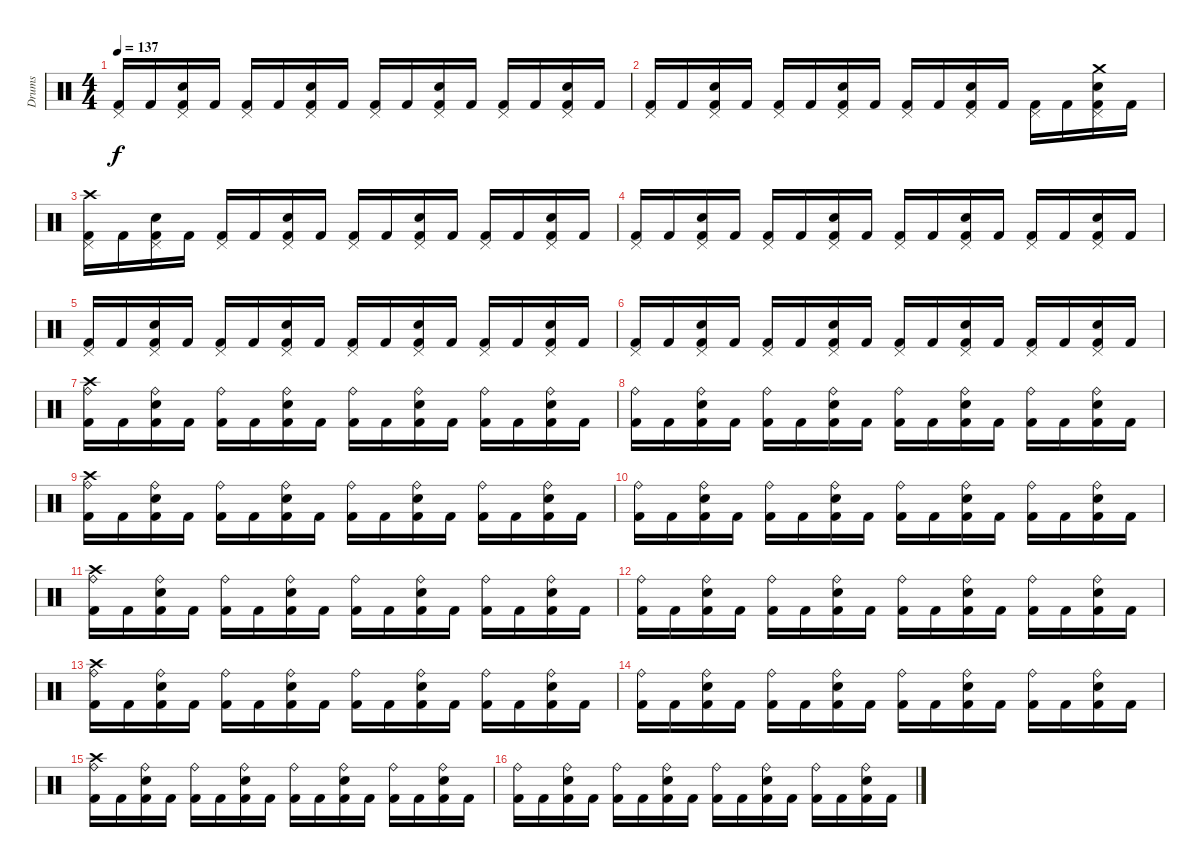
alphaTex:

\track ("Drums" "Drums") {instrument percussion}
\staff
\articulation defaults
\ts (4 4)
\tempo 137
\clef neutral
\ks c
("Pedal Hi-Hat (hit)" "Kick (hit) 2").16{dy f} "Kick (hit) 2".16 ("Pedal Hi-Hat (hit)" "Snare (hit) 2" "Kick (hit) 2").16 "Kick (hit) 2".16 ("Pedal Hi-Hat (hit)" "Kick (hit) 2").16 "Kick (hit) 2".16 ("Pedal Hi-Hat (hit)" "Snare (hit) 2" "Kick (hit) 2").16 "Kick (hit) 2".16 ("Pedal Hi-Hat (hit)" "Kick (hit) 2").16 "Kick (hit) 2".16 ("Pedal Hi-Hat (hit)" "Snare (hit) 2" "Kick (hit) 2").16 "Kick (hit) 2".16 ("Pedal Hi-Hat (hit)" "Kick (hit) 2").16 "Kick (hit) 2".16 ("Pedal Hi-Hat (hit)" "Snare (hit) 2" "Kick (hit) 2").16 "Kick (hit) 2".16 |
("Pedal Hi-Hat (hit)" "Kick (hit) 2").16 "Kick (hit) 2".16 ("Pedal Hi-Hat (hit)" "Snare (hit) 2" "Kick (hit) 2").16 "Kick (hit) 2".16 ("Pedal Hi-Hat (hit)" "Kick (hit) 2").16 "Kick (hit) 2".16 ("Pedal Hi-Hat (hit)" "Snare (hit) 2" "Kick (hit) 2").16 "Kick (hit) 2".16 ("Pedal Hi-Hat (hit)" "Kick (hit) 2").16 "Kick (hit) 2".16 ("Pedal Hi-Hat (hit)" "Snare (hit) 2" "Kick (hit) 2").16 "Kick (hit) 2".16 ("Pedal Hi-Hat (hit)" "Kick (hit) 2").16 "Kick (hit) 2".16 ("Crash medium (hit)" "Pedal Hi-Hat (hit)" "Snare (hit) 2" "Kick (hit) 2").16 "Kick (hit) 2".16 |
("Crash high (hit)" "Pedal Hi-Hat (hit)" "Kick (hit) 2").16 "Kick (hit) 2".16 ("Pedal Hi-Hat (hit)" "Snare (hit) 2" "Kick (hit) 2").16 "Kick (hit) 2".16 ("Pedal Hi-Hat (hit)" "Kick (hit) 2").16 "Kick (hit) 2".16 ("Pedal Hi-Hat (hit)" "Snare (hit) 2" "Kick (hit) 2").16 "Kick (hit) 2".16 ("Pedal Hi-Hat (hit)" "Kick (hit) 2").16 "Kick (hit) 2".16 ("Pedal Hi-Hat (hit)" "Snare (hit) 2" "Kick (hit) 2").16 "Kick (hit) 2".16 ("Pedal Hi-Hat (hit)" "Kick (hit) 2").16 "Kick (hit) 2".16 ("Pedal Hi-Hat (hit)" "Snare (hit) 2" "Kick (hit) 2").16 "Kick (hit) 2".16 |
("Pedal Hi-Hat (hit)" "Kick (hit) 2").16 "Kick (hit) 2".16 ("Pedal Hi-Hat (hit)" "Snare (hit) 2" "Kick (hit) 2").16 "Kick (hit) 2".16 ("Pedal Hi-Hat (hit)" "Kick (hit) 2").16 "Kick (hit) 2".16 ("Pedal Hi-Hat (hit)" "Snare (hit) 2" "Kick (hit) 2").16 "Kick (hit) 2".16 ("Pedal Hi-Hat (hit)" "Kick (hit) 2").16 "Kick (hit) 2".16 ("Pedal Hi-Hat (hit)" "Snare (hit) 2" "Kick (hit) 2").16 "Kick (hit) 2".16 ("Pedal Hi-Hat (hit)" "Kick (hit) 2").16 "Kick (hit) 2".16 ("Pedal Hi-Hat (hit)" "Snare (hit) 2" "Kick (hit) 2").16 "Kick (hit) 2".16 |
("Pedal Hi-Hat (hit)" "Kick (hit) 2").16 "Kick (hit) 2".16 ("Pedal Hi-Hat (hit)" "Snare (hit) 2" "Kick (hit) 2").16 "Kick (hit) 2".16 ("Pedal Hi-Hat (hit)" "Kick (hit) 2").16 "Kick (hit) 2".16 ("Pedal Hi-Hat (hit)" "Snare (hit) 2" "Kick (hit) 2").16 "Kick (hit) 2".16 ("Pedal Hi-Hat (hit)" "Kick (hit) 2").16 "Kick (hit) 2".16 ("Pedal Hi-Hat (hit)" "Snare (hit) 2" "Kick (hit) 2").16 "Kick (hit) 2".16 ("Pedal Hi-Hat (hit)" "Kick (hit) 2").16 "Kick (hit) 2".16 ("Pedal Hi-Hat (hit)" "Snare (hit) 2" "Kick (hit) 2").16 "Kick (hit) 2".16 |
("Pedal Hi-Hat (hit)" "Kick (hit) 2").16 "Kick (hit) 2".16 ("Pedal Hi-Hat (hit)" "Snare (hit) 2" "Kick (hit) 2").16 "Kick (hit) 2".16 ("Pedal Hi-Hat (hit)" "Kick (hit) 2").16 "Kick (hit) 2".16 ("Pedal Hi-Hat (hit)" "Snare (hit) 2" "Kick (hit) 2").16 "Kick (hit) 2".16 ("Pedal Hi-Hat (hit)" "Kick (hit) 2").16 "Kick (hit) 2".16 ("Pedal Hi-Hat (hit)" "Snare (hit) 2" "Kick (hit) 2").16 "Kick (hit) 2".16 ("Pedal Hi-Hat (hit)" "Kick (hit) 2").16 "Kick (hit) 2".16 ("Pedal Hi-Hat (hit)" "Snare (hit) 2" "Kick (hit) 2").16 "Kick (hit) 2".16 |
("Crash high (hit)" "Ride (bell)" "Kick (hit) 2").16 "Kick (hit) 2".16 ("Ride (bell)" "Snare (hit) 2" "Kick (hit) 2").16 "Kick (hit) 2".16 ("Ride (bell)" "Kick (hit) 2").16 "Kick (hit) 2".16 ("Ride (bell)" "Snare (hit) 2" "Kick (hit) 2").16 "Kick (hit) 2".16 ("Ride (bell)" "Kick (hit) 2").16 "Kick (hit) 2".16 ("Ride (bell)" "Snare (hit) 2" "Kick (hit) 2").16 "Kick (hit) 2".16 ("Ride (bell)" "Kick (hit) 2").16 "Kick (hit) 2".16 ("Ride (bell)" "Snare (hit) 2" "Kick (hit) 2").16 "Kick (hit) 2".16 |
("Ride (bell)" "Kick (hit) 2").16 "Kick (hit) 2".16 ("Ride (bell)" "Snare (hit) 2" "Kick (hit) 2").16 "Kick (hit) 2".16 ("Ride (bell)" "Kick (hit) 2").16 "Kick (hit) 2".16 ("Ride (bell)" "Snare (hit) 2" "Kick (hit) 2").16 "Kick (hit) 2".16 ("Ride (bell)" "Kick (hit) 2").16 "Kick (hit) 2".16 ("Ride (bell)" "Snare (hit) 2" "Kick (hit) 2").16 "Kick (hit) 2".16 ("Ride (bell)" "Kick (hit) 2").16 "Kick (hit) 2".16 ("Ride (bell)" "Snare (hit) 2" "Kick (hit) 2").16 "Kick (hit) 2".16 |
("Crash high (hit)" "Ride (bell)" "Kick (hit) 2").16 "Kick (hit) 2".16 ("Ride (bell)" "Snare (hit) 2" "Kick (hit) 2").16 "Kick (hit) 2".16 ("Ride (bell)" "Kick (hit) 2").16 "Kick (hit) 2".16 ("Ride (bell)" "Snare (hit) 2" "Kick (hit) 2").16 "Kick (hit) 2".16 ("Ride (bell)" "Kick (hit) 2").16 "Kick (hit) 2".16 ("Ride (bell)" "Snare (hit) 2" "Kick (hit) 2").16 "Kick (hit) 2".16 ("Ride (bell)" "Kick (hit) 2").16 "Kick (hit) 2".16 ("Ride (bell)" "Snare (hit) 2" "Kick (hit) 2").16 "Kick (hit) 2".16 |
("Ride (bell)" "Kick (hit) 2").16 "Kick (hit) 2".16 ("Ride (bell)" "Snare (hit) 2" "Kick (hit) 2").16 "Kick (hit) 2".16 ("Ride (bell)" "Kick (hit) 2").16 "Kick (hit) 2".16 ("Ride (bell)" "Snare (hit) 2" "Kick (hit) 2").16 "Kick (hit) 2".16 ("Ride (bell)" "Kick (hit) 2").16 "Kick (hit) 2".16 ("Ride (bell)" "Snare (hit) 2" "Kick (hit) 2").16 "Kick (hit) 2".16 ("Ride (bell)" "Kick (hit) 2").16 "Kick (hit) 2".16 ("Ride (bell)" "Snare (hit) 2" "Kick (hit) 2").16 "Kick (hit) 2".16 |
("Crash high (hit)" "Ride (bell)" "Kick (hit) 2").16 "Kick (hit) 2".16 ("Ride (bell)" "Snare (hit) 2" "Kick (hit) 2").16 "Kick (hit) 2".16 ("Ride (bell)" "Kick (hit) 2").16 "Kick (hit) 2".16 ("Ride (bell)" "Snare (hit) 2" "Kick (hit) 2").16 "Kick (hit) 2".16 ("Ride (bell)" "Kick (hit) 2").16 "Kick (hit) 2".16 ("Ride (bell)" "Snare (hit) 2" "Kick (hit) 2").16 "Kick (hit) 2".16 ("Ride (bell)" "Kick (hit) 2").16 "Kick (hit) 2".16 ("Ride (bell)" "Snare (hit) 2" "Kick (hit) 2").16 "Kick (hit) 2".16 |
("Ride (bell)" "Kick (hit) 2").16 "Kick (hit) 2".16 ("Ride (bell)" "Snare (hit) 2" "Kick (hit) 2").16 "Kick (hit) 2".16 ("Ride (bell)" "Kick (hit) 2").16 "Kick (hit) 2".16 ("Ride (bell)" "Snare (hit) 2" "Kick (hit) 2").16 "Kick (hit) 2".16 ("Ride (bell)" "Kick (hit) 2").16 "Kick (hit) 2".16 ("Ride (bell)" "Snare (hit) 2" "Kick (hit) 2").16 "Kick (hit) 2".16 ("Ride (bell)" "Kick (hit) 2").16 "Kick (hit) 2".16 ("Ride (bell)" "Snare (hit) 2" "Kick (hit) 2").16 "Kick (hit) 2".16 |
("Crash high (hit)" "Ride (bell)" "Kick (hit) 2").16 "Kick (hit) 2".16 ("Ride (bell)" "Snare (hit) 2" "Kick (hit) 2").16 "Kick (hit) 2".16 ("Ride (bell)" "Kick (hit) 2").16 "Kick (hit) 2".16 ("Ride (bell)" "Snare (hit) 2" "Kick (hit) 2").16 "Kick (hit) 2".16 ("Ride (bell)" "Kick (hit) 2").16 "Kick (hit) 2".16 ("Ride (bell)" "Snare (hit) 2" "Kick (hit) 2").16 "Kick (hit) 2".16 ("Ride (bell)" "Kick (hit) 2").16 "Kick (hit) 2".16 ("Ride (bell)" "Snare (hit) 2" "Kick (hit) 2").16 "Kick (hit) 2".16 |
("Ride (bell)" "Kick (hit) 2").16 "Kick (hit) 2".16 ("Ride (bell)" "Snare (hit) 2" "Kick (hit) 2").16 "Kick (hit) 2".16 ("Ride (bell)" "Kick (hit) 2").16 "Kick (hit) 2".16 ("Ride (bell)" "Snare (hit) 2" "Kick (hit) 2").16 "Kick (hit) 2".16 ("Ride (bell)" "Kick (hit) 2").16 "Kick (hit) 2".16 ("Ride (bell)" "Snare (hit) 2" "Kick (hit) 2").16 "Kick (hit) 2".16 ("Ride (bell)" "Kick (hit) 2").16 "Kick (hit) 2".16 ("Ride (bell)" "Snare (hit) 2" "Kick (hit) 2").16 "Kick (hit) 2".16 |
("Crash high (hit)" "Ride (bell)" "Kick (hit) 2").16 "Kick (hit) 2".16 ("Ride (bell)" "Snare (hit) 2" "Kick (hit) 2").16 "Kick (hit) 2".16 ("Ride (bell)" "Kick (hit) 2").16 "Kick (hit) 2".16 ("Ride (bell)" "Snare (hit) 2" "Kick (hit) 2").16 "Kick (hit) 2".16 ("Ride (bell)" "Kick (hit) 2").16 "Kick (hit) 2".16 ("Ride (bell)" "Snare (hit) 2" "Kick (hit) 2").16 "Kick (hit) 2".16 ("Ride (bell)" "Kick (hit) 2").16 "Kick (hit) 2".16 ("Ride (bell)" "Snare (hit) 2" "Kick (hit) 2").16 "Kick (hit) 2".16 |
("Ride (bell)" "Kick (hit) 2").16 "Kick (hit) 2".16 ("Ride (bell)" "Snare (hit) 2" "Kick (hit) 2").16 "Kick (hit) 2".16 ("Ride (bell)" "Kick (hit) 2").16 "Kick (hit) 2".16 ("Ride (bell)" "Snare (hit) 2" "Kick (hit) 2").16 "Kick (hit) 2".16 ("Ride (bell)" "Kick (hit) 2").16 "Kick (hit) 2".16 ("Ride (bell)" "Snare (hit) 2" "Kick (hit) 2").16 "Kick (hit) 2".16 ("Ride (bell)" "Kick (hit) 2").16 "Kick (hit) 2".16 ("Ride (bell)" "Snare (hit) 2" "Kick (hit) 2").16 "Kick (hit) 2".16
